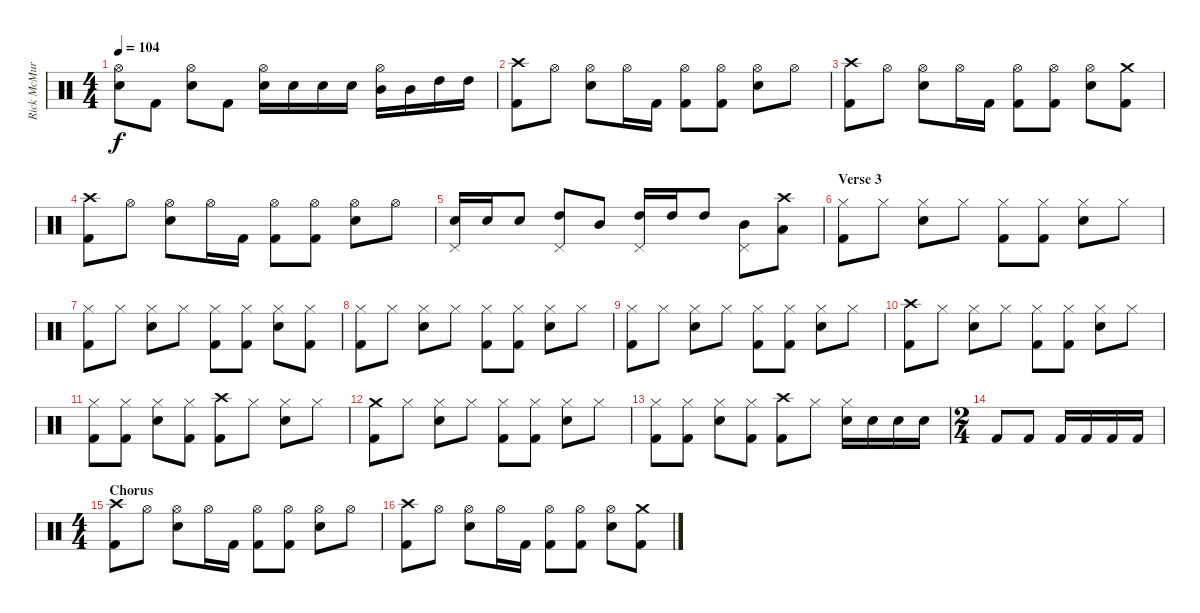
\track ("Rick McMurray" "Rick McMur") {instrument percussion}
\staff {score}
\articulation defaults
\ts (4 4)
\tempo 104
\clef neutral
\ks c
("Hi-Hat (open)" "Snare (hit)"{t}).8{dy f} "Kick (hit) 2".8 ("Hi-Hat (open)" "Snare (hit) 2").8 "Kick (hit) 2".8 ("Snare (hit) 2" "Hi-Hat (open)").16 "Snare (hit) 2".16 "Snare (hit) 2".16 "Snare (hit) 2".16 ("Mid Tom (hit)" "Hi-Hat (open)").16 "Mid Tom (hit)".16 "High Tom (hit)".16 "High Tom (hit)".16 |
("Crash high (hit)" "Kick (hit) 2").8 "Hi-Hat (open)".8 ("Hi-Hat (open)" "Snare (hit) 2").8 "Hi-Hat (open)".16 "Kick (hit) 2".16 ("Hi-Hat (open)" "Kick (hit) 2").8 ("Hi-Hat (open)" "Kick (hit) 2").8 ("Hi-Hat (open)" "Snare (hit) 2").8 "Hi-Hat (open)".8 |
("Crash high (hit)" "Kick (hit) 2").8 "Hi-Hat (open)".8 ("Hi-Hat (open)" "Snare (hit) 2").8 "Hi-Hat (open)".16 "Kick (hit) 2".16 ("Hi-Hat (open)" "Kick (hit) 2").8 ("Hi-Hat (open)" "Kick (hit) 2").8 ("Hi-Hat (open)" "Snare (hit) 2").8 ("Crash medium (hit)" "Kick (hit) 2").8 |
("Crash high (hit)" "Kick (hit) 2").8 "Hi-Hat (open)".8 ("Hi-Hat (open)" "Snare (hit) 2").8 "Hi-Hat (open)".16 "Kick (hit) 2".16 ("Hi-Hat (open)" "Kick (hit) 2").8 ("Hi-Hat (open)" "Kick (hit) 2").8 ("Hi-Hat (open)" "Snare (hit) 2").8 "Hi-Hat (open)".8 |
("Snare (hit) 2" "Pedal Hi-Hat (hit)").16 "Snare (hit) 2".16 "Snare (hit) 2".8 ("High Tom (hit)" "Pedal Hi-Hat (hit)").8 "Mid Tom (hit)".8 ("High Tom (hit)" "Pedal Hi-Hat (hit)").16 "High Tom (hit)".16 "High Tom (hit)".8 ("Mid Tom (hit)" "Pedal Hi-Hat (hit)").8 ("Crash high (hit)" "Low Tom (hit)").8 |
\section ("" "Verse 3")
("Hi-Hat (closed)" "Kick (hit) 2").8 "Hi-Hat (closed)".8 ("Hi-Hat (closed)" "Snare (hit) 2").8 "Hi-Hat (closed)".8 ("Hi-Hat (closed)" "Kick (hit) 2").8 ("Hi-Hat (closed)" "Kick (hit) 2").8 ("Hi-Hat (closed)" "Snare (hit) 2").8 "Hi-Hat (closed)".8 |
("Hi-Hat (closed)" "Kick (hit) 2").8 "Hi-Hat (closed)".8 ("Hi-Hat (closed)" "Snare (hit) 2").8 "Hi-Hat (closed)".8 ("Hi-Hat (closed)" "Kick (hit) 2").8 ("Hi-Hat (closed)" "Kick (hit) 2").8 ("Hi-Hat (closed)" "Snare (hit) 2").8 ("Hi-Hat (closed)" "Kick (hit) 2").8 |
("Hi-Hat (closed)" "Kick (hit) 2").8 "Hi-Hat (closed)".8 ("Hi-Hat (closed)" "Snare (hit) 2").8 "Hi-Hat (closed)".8 ("Hi-Hat (closed)" "Kick (hit) 2").8 ("Hi-Hat (closed)" "Kick (hit) 2").8 ("Hi-Hat (closed)" "Snare (hit) 2").8 "Hi-Hat (closed)".8 |
("Hi-Hat (closed)" "Kick (hit) 2").8 "Hi-Hat (closed)".8 ("Hi-Hat (closed)" "Snare (hit) 2").8 "Hi-Hat (closed)".8 ("Hi-Hat (closed)" "Kick (hit) 2").8 ("Hi-Hat (closed)" "Kick (hit) 2").8 ("Hi-Hat (closed)" "Snare (hit) 2").8 "Hi-Hat (closed)".8 |
("Crash high (hit)" "Kick (hit) 2").8 "Hi-Hat (closed)".8 ("Hi-Hat (closed)" "Snare (hit) 2").8 "Hi-Hat (closed)".8 ("Hi-Hat (closed)" "Kick (hit) 2").8 ("Hi-Hat (closed)" "Kick (hit) 2").8 ("Hi-Hat (closed)" "Snare (hit) 2").8 "Hi-Hat (closed)".8 |
("Hi-Hat (closed)" "Kick (hit) 2").8 ("Hi-Hat (closed)" "Kick (hit) 2").8 ("Hi-Hat (closed)" "Snare (hit) 2").8 ("Hi-Hat (closed)" "Kick (hit) 2").8 ("Crash high (hit)" "Kick (hit) 2").8 "Hi-Hat (closed)".8 ("Hi-Hat (closed)" "Snare (hit) 2").8 "Hi-Hat (closed)".8 |
("Crash medium (hit)" "Kick (hit) 2").8 "Hi-Hat (closed)".8 ("Hi-Hat (closed)" "Snare (hit) 2").8 "Hi-Hat (closed)".8 ("Hi-Hat (closed)" "Kick (hit) 2").8 ("Hi-Hat (closed)" "Kick (hit) 2").8 ("Hi-Hat (closed)" "Snare (hit) 2").8 "Hi-Hat (closed)".8 |
("Hi-Hat (closed)" "Kick (hit) 2").8 ("Hi-Hat (closed)" "Kick (hit) 2").8 ("Hi-Hat (closed)" "Snare (hit) 2").8 ("Hi-Hat (closed)" "Kick (hit) 2").8 ("Crash high (hit)" "Kick (hit) 2").8 "Hi-Hat (closed)".8 ("Hi-Hat (closed)" "Snare (hit) 2").16 "Snare (hit) 2".16 "Snare (hit) 2".16 "Snare (hit) 2".16 |
\ts (2 4)
"Kick (hit) 2".8 "Kick (hit) 2".8 "Kick (hit) 2".16 "Kick (hit) 2".16 "Kick (hit) 2".16 "Kick (hit) 2".16 |
\ts (4 4)
\section ("" "Chorus")
("Crash high (hit)" "Kick (hit) 2").8 "Hi-Hat (open)".8 ("Hi-Hat (open)" "Snare (hit) 2").8 "Hi-Hat (open)".16 "Kick (hit) 2".16 ("Hi-Hat (open)" "Kick (hit) 2").8 ("Hi-Hat (open)" "Kick (hit) 2").8 ("Hi-Hat (open)" "Snare (hit) 2").8 "Hi-Hat (open)".8 |
("Crash high (hit)" "Kick (hit) 2").8 "Hi-Hat (open)".8 ("Hi-Hat (open)" "Snare (hit) 2").8 "Hi-Hat (open)".16 "Kick (hit) 2".16 ("Hi-Hat (open)" "Kick (hit) 2").8 ("Hi-Hat (open)" "Kick (hit) 2").8 ("Hi-Hat (open)" "Snare (hit) 2").8 ("Crash medium (hit)" "Kick (hit) 2").8
